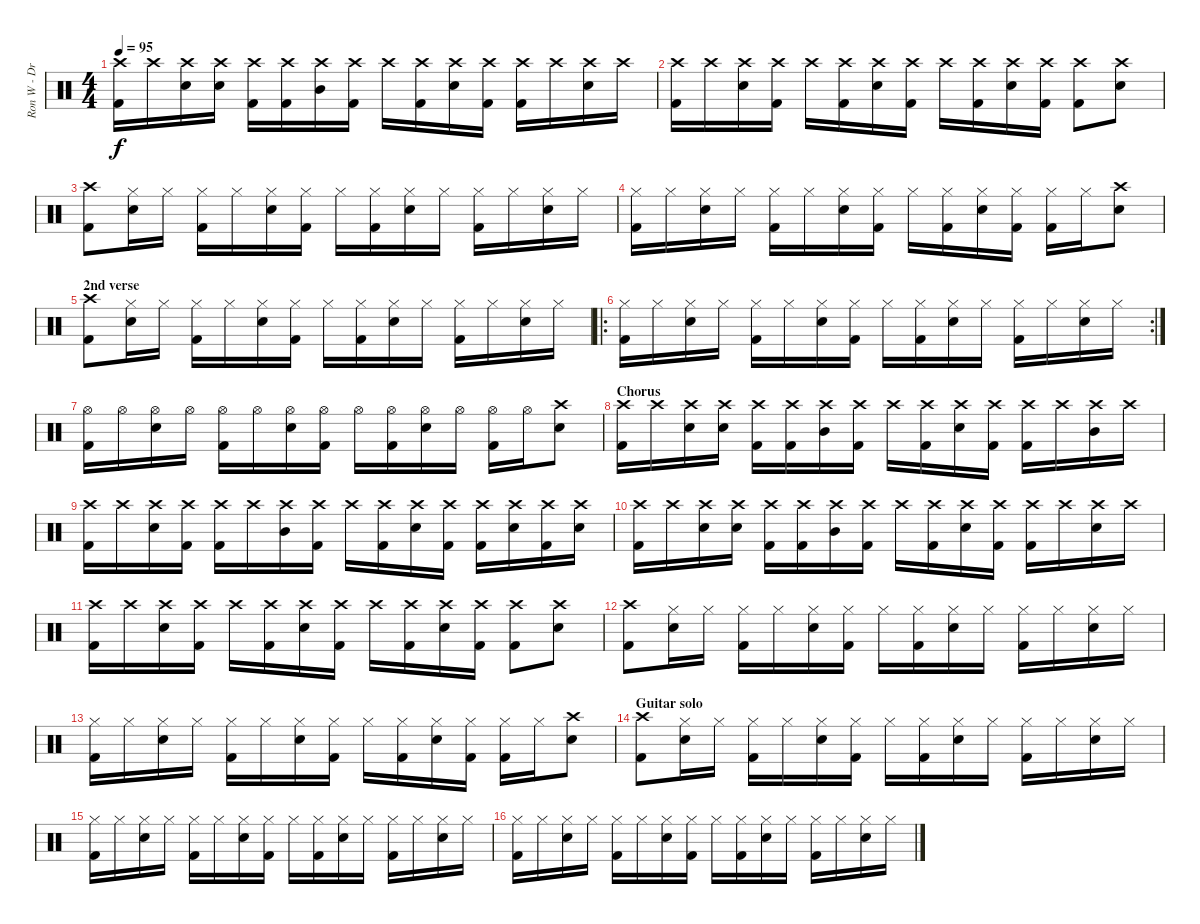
\track ("Ron W - Drums" "Ron W - Dr") {instrument percussion}
\staff {score}
\articulation defaults
\ts (4 4)
\tempo 95
\clef neutral
\ks c
("Crash high (hit)" "Kick (hit) 2").16{dy f} "Crash high (hit)".16 ("Crash high (hit)" "Electric Snare (hit)").16 ("Crash high (hit)" "Electric Snare (hit)").16 ("Crash high (hit)" "Kick (hit) 2").16 ("Crash high (hit)" "Kick (hit) 2").16 ("Mid Tom (hit)" "Crash high (hit)").16 ("Crash high (hit)" "Kick (hit) 2").16 "Crash high (hit)".16 ("Crash high (hit)" "Kick (hit) 2").16 ("Crash high (hit)" "Electric Snare (hit)").16 ("Crash high (hit)" "Kick (hit) 2").16 ("Crash high (hit)" "Kick (hit) 2").16 "Crash high (hit)".16 ("Crash high (hit)" "Electric Snare (hit)").16 "Crash high (hit)".16 |
("Crash high (hit)" "Kick (hit) 2").16 "Crash high (hit)".16 ("Crash high (hit)" "Electric Snare (hit)").16 ("Crash high (hit)" "Kick (hit) 2").16 "Crash high (hit)".16 ("Crash high (hit)" "Kick (hit) 2").16 ("Crash high (hit)" "Electric Snare (hit)").16 ("Crash high (hit)" "Kick (hit) 2").16 "Crash high (hit)".16 ("Crash high (hit)" "Kick (hit) 2").16 ("Crash high (hit)" "Electric Snare (hit)").16 ("Crash high (hit)" "Kick (hit) 2").16 ("Crash high (hit)" "Kick (hit) 2").8 ("Crash high (hit)" "Electric Snare (hit)").8 |
("Crash high (hit)" "Kick (hit) 2").8 ("Hi-Hat (closed)" "Electric Snare (hit)").16 "Hi-Hat (closed)".16 ("Hi-Hat (closed)" "Kick (hit) 2").16 "Hi-Hat (closed)".16 ("Hi-Hat (closed)" "Electric Snare (hit)").16 ("Hi-Hat (closed)" "Kick (hit) 2").16 "Hi-Hat (closed)".16 ("Hi-Hat (closed)" "Kick (hit) 2").16 ("Hi-Hat (closed)" "Electric Snare (hit)").16 "Hi-Hat (closed)".16 ("Hi-Hat (closed)" "Kick (hit) 2").16 "Hi-Hat (closed)".16 ("Hi-Hat (closed)" "Electric Snare (hit)").16 "Hi-Hat (closed)".16 |
("Hi-Hat (closed)" "Kick (hit) 2").16 "Hi-Hat (closed)".16 ("Hi-Hat (closed)" "Electric Snare (hit)").16 "Hi-Hat (closed)".16 ("Hi-Hat (closed)" "Kick (hit) 2").16 "Hi-Hat (closed)".16 ("Hi-Hat (closed)" "Electric Snare (hit)").16 ("Hi-Hat (closed)" "Kick (hit) 2").16 "Hi-Hat (closed)".16 ("Hi-Hat (closed)" "Kick (hit) 2").16 ("Hi-Hat (closed)" "Electric Snare (hit)").16 ("Hi-Hat (closed)" "Kick (hit) 2").16 ("Hi-Hat (closed)" "Kick (hit) 2").16 "Hi-Hat (closed)".16 ("Crash high (hit)" "Electric Snare (hit)").8 |
\section ("" "2nd verse")
("Crash high (hit)" "Kick (hit) 2").8 ("Hi-Hat (closed)" "Electric Snare (hit)").16 "Hi-Hat (closed)".16 ("Hi-Hat (closed)" "Kick (hit) 2").16 "Hi-Hat (closed)".16 ("Hi-Hat (closed)" "Electric Snare (hit)").16 ("Hi-Hat (closed)" "Kick (hit) 2").16 "Hi-Hat (closed)".16 ("Hi-Hat (closed)" "Kick (hit) 2").16 ("Hi-Hat (closed)" "Electric Snare (hit)").16 "Hi-Hat (closed)".16 ("Hi-Hat (closed)" "Kick (hit) 2").16 "Hi-Hat (closed)".16 ("Hi-Hat (closed)" "Electric Snare (hit)").16 "Hi-Hat (closed)".16 |
\ro
\rc 2
("Hi-Hat (closed)" "Kick (hit) 2").16 "Hi-Hat (closed)".16 ("Hi-Hat (closed)" "Electric Snare (hit)").16 "Hi-Hat (closed)".16 ("Hi-Hat (closed)" "Kick (hit) 2").16 "Hi-Hat (closed)".16 ("Hi-Hat (closed)" "Electric Snare (hit)").16 ("Hi-Hat (closed)" "Kick (hit) 2").16 "Hi-Hat (closed)".16 ("Hi-Hat (closed)" "Kick (hit) 2").16 ("Hi-Hat (closed)" "Electric Snare (hit)").16 "Hi-Hat (closed)".16 ("Hi-Hat (closed)" "Kick (hit) 2").16 "Hi-Hat (closed)".16 ("Hi-Hat (closed)" "Electric Snare (hit)").16 "Hi-Hat (closed)".16 |
("Hi-Hat (open)" "Kick (hit) 2").16 "Hi-Hat (open)".16 ("Hi-Hat (open)" "Electric Snare (hit)").16 "Hi-Hat (open)".16 ("Hi-Hat (open)" "Kick (hit) 2").16 "Hi-Hat (open)".16 ("Hi-Hat (open)" "Electric Snare (hit)").16 ("Hi-Hat (open)" "Kick (hit) 2").16 "Hi-Hat (open)".16 ("Hi-Hat (open)" "Kick (hit) 2").16 ("Hi-Hat (open)" "Electric Snare (hit)").16 "Hi-Hat (open)".16 ("Hi-Hat (open)" "Kick (hit) 2").16 "Hi-Hat (open)".16 ("Crash high (hit)" "Electric Snare (hit)").8 |
\section ("" "Chorus")
("Crash high (hit)" "Kick (hit) 2").16 "Crash high (hit)".16 ("Crash high (hit)" "Electric Snare (hit)").16 ("Crash high (hit)" "Electric Snare (hit)").16 ("Crash high (hit)" "Kick (hit) 2").16 ("Crash high (hit)" "Kick (hit) 2").16 ("Mid Tom (hit)" "Crash high (hit)").16 ("Crash high (hit)" "Kick (hit) 2").16 "Crash high (hit)".16 ("Crash high (hit)" "Kick (hit) 2").16 ("Crash high (hit)" "Electric Snare (hit)").16 ("Crash high (hit)" "Kick (hit) 2").16 ("Crash high (hit)" "Kick (hit) 2").16 "Crash high (hit)".16 ("Mid Tom (hit)" "Crash high (hit)").16 "Crash high (hit)".16 |
("Crash high (hit)" "Kick (hit) 2").16 "Crash high (hit)".16 ("Crash high (hit)" "Electric Snare (hit)").16 ("Crash high (hit)" "Kick (hit) 2").16 ("Crash high (hit)" "Kick (hit) 2").16 "Crash high (hit)".16 ("Mid Tom (hit)" "Crash high (hit)").16 ("Crash high (hit)" "Kick (hit) 2").16 "Crash high (hit)".16 ("Crash high (hit)" "Kick (hit) 2").16 ("Crash high (hit)" "Electric Snare (hit)").16 ("Crash high (hit)" "Kick (hit) 2").16 ("Crash high (hit)" "Kick (hit) 2").16 ("Crash high (hit)" "Electric Snare (hit)").16 ("Crash high (hit)" "Kick (hit) 2").16 ("Crash high (hit)" "Electric Snare (hit)").16 |
("Crash high (hit)" "Kick (hit) 2").16 "Crash high (hit)".16 ("Crash high (hit)" "Electric Snare (hit)").16 ("Crash high (hit)" "Electric Snare (hit)").16 ("Crash high (hit)" "Kick (hit) 2").16 ("Crash high (hit)" "Kick (hit) 2").16 ("Mid Tom (hit)" "Crash high (hit)").16 ("Crash high (hit)" "Kick (hit) 2").16 "Crash high (hit)".16 ("Crash high (hit)" "Kick (hit) 2").16 ("Crash high (hit)" "Electric Snare (hit)").16 ("Crash high (hit)" "Kick (hit) 2").16 ("Crash high (hit)" "Kick (hit) 2").16 "Crash high (hit)".16 ("Crash high (hit)" "Electric Snare (hit)").16 "Crash high (hit)".16 |
("Crash high (hit)" "Kick (hit) 2").16 "Crash high (hit)".16 ("Crash high (hit)" "Electric Snare (hit)").16 ("Crash high (hit)" "Kick (hit) 2").16 "Crash high (hit)".16 ("Crash high (hit)" "Kick (hit) 2").16 ("Crash high (hit)" "Electric Snare (hit)").16 ("Crash high (hit)" "Kick (hit) 2").16 "Crash high (hit)".16 ("Crash high (hit)" "Kick (hit) 2").16 ("Crash high (hit)" "Electric Snare (hit)").16 ("Crash high (hit)" "Kick (hit) 2").16 ("Crash high (hit)" "Kick (hit) 2").8 ("Crash high (hit)" "Electric Snare (hit)").8 |
("Crash high (hit)" "Kick (hit) 2").8 ("Hi-Hat (closed)" "Electric Snare (hit)").16 "Hi-Hat (closed)".16 ("Hi-Hat (closed)" "Kick (hit) 2").16 "Hi-Hat (closed)".16 ("Hi-Hat (closed)" "Electric Snare (hit)").16 ("Hi-Hat (closed)" "Kick (hit) 2").16 "Hi-Hat (closed)".16 ("Hi-Hat (closed)" "Kick (hit) 2").16 ("Hi-Hat (closed)" "Electric Snare (hit)").16 "Hi-Hat (closed)".16 ("Hi-Hat (closed)" "Kick (hit) 2").16 "Hi-Hat (closed)".16 ("Hi-Hat (closed)" "Electric Snare (hit)").16 "Hi-Hat (closed)".16 |
("Hi-Hat (closed)" "Kick (hit) 2").16 "Hi-Hat (closed)".16 ("Hi-Hat (closed)" "Electric Snare (hit)").16 "Hi-Hat (closed)".16 ("Hi-Hat (closed)" "Kick (hit) 2").16 "Hi-Hat (closed)".16 ("Hi-Hat (closed)" "Electric Snare (hit)").16 ("Hi-Hat (closed)" "Kick (hit) 2").16 "Hi-Hat (closed)".16 ("Hi-Hat (closed)" "Kick (hit) 2").16 ("Hi-Hat (closed)" "Electric Snare (hit)").16 ("Hi-Hat (closed)" "Kick (hit) 2").16 ("Hi-Hat (closed)" "Kick (hit) 2").16 "Hi-Hat (closed)".16 ("Crash high (hit)" "Electric Snare (hit)").8 |
\section ("" "Guitar solo")
("Crash high (hit)" "Kick (hit) 2").8 ("Hi-Hat (closed)" "Electric Snare (hit)").16 "Hi-Hat (closed)".16 ("Hi-Hat (closed)" "Kick (hit) 2").16 "Hi-Hat (closed)".16 ("Hi-Hat (closed)" "Electric Snare (hit)").16 ("Hi-Hat (closed)" "Kick (hit) 2").16 "Hi-Hat (closed)".16 ("Hi-Hat (closed)" "Kick (hit) 2").16 ("Hi-Hat (closed)" "Electric Snare (hit)").16 "Hi-Hat (closed)".16 ("Hi-Hat (closed)" "Kick (hit) 2").16 "Hi-Hat (closed)".16 ("Hi-Hat (closed)" "Electric Snare (hit)").16 "Hi-Hat (closed)".16 |
("Hi-Hat (closed)" "Kick (hit) 2").16 "Hi-Hat (closed)".16 ("Hi-Hat (closed)" "Electric Snare (hit)").16 "Hi-Hat (closed)".16 ("Hi-Hat (closed)" "Kick (hit) 2").16 "Hi-Hat (closed)".16 ("Hi-Hat (closed)" "Electric Snare (hit)").16 ("Hi-Hat (closed)" "Kick (hit) 2").16 "Hi-Hat (closed)".16 ("Hi-Hat (closed)" "Kick (hit) 2").16 ("Hi-Hat (closed)" "Electric Snare (hit)").16 "Hi-Hat (closed)".16 ("Hi-Hat (closed)" "Kick (hit) 2").16 "Hi-Hat (closed)".16 ("Hi-Hat (closed)" "Electric Snare (hit)").16 "Hi-Hat (closed)".16 |
("Hi-Hat (closed)" "Kick (hit) 2").16 "Hi-Hat (closed)".16 ("Hi-Hat (closed)" "Electric Snare (hit)").16 "Hi-Hat (closed)".16 ("Hi-Hat (closed)" "Kick (hit) 2").16 "Hi-Hat (closed)".16 ("Hi-Hat (closed)" "Electric Snare (hit)").16 ("Hi-Hat (closed)" "Kick (hit) 2").16 "Hi-Hat (closed)".16 ("Hi-Hat (closed)" "Kick (hit) 2").16 ("Hi-Hat (closed)" "Electric Snare (hit)").16 "Hi-Hat (closed)".16 ("Hi-Hat (closed)" "Kick (hit) 2").16 "Hi-Hat (closed)".16 ("Hi-Hat (closed)" "Electric Snare (hit)").16 "Hi-Hat (closed)".16
